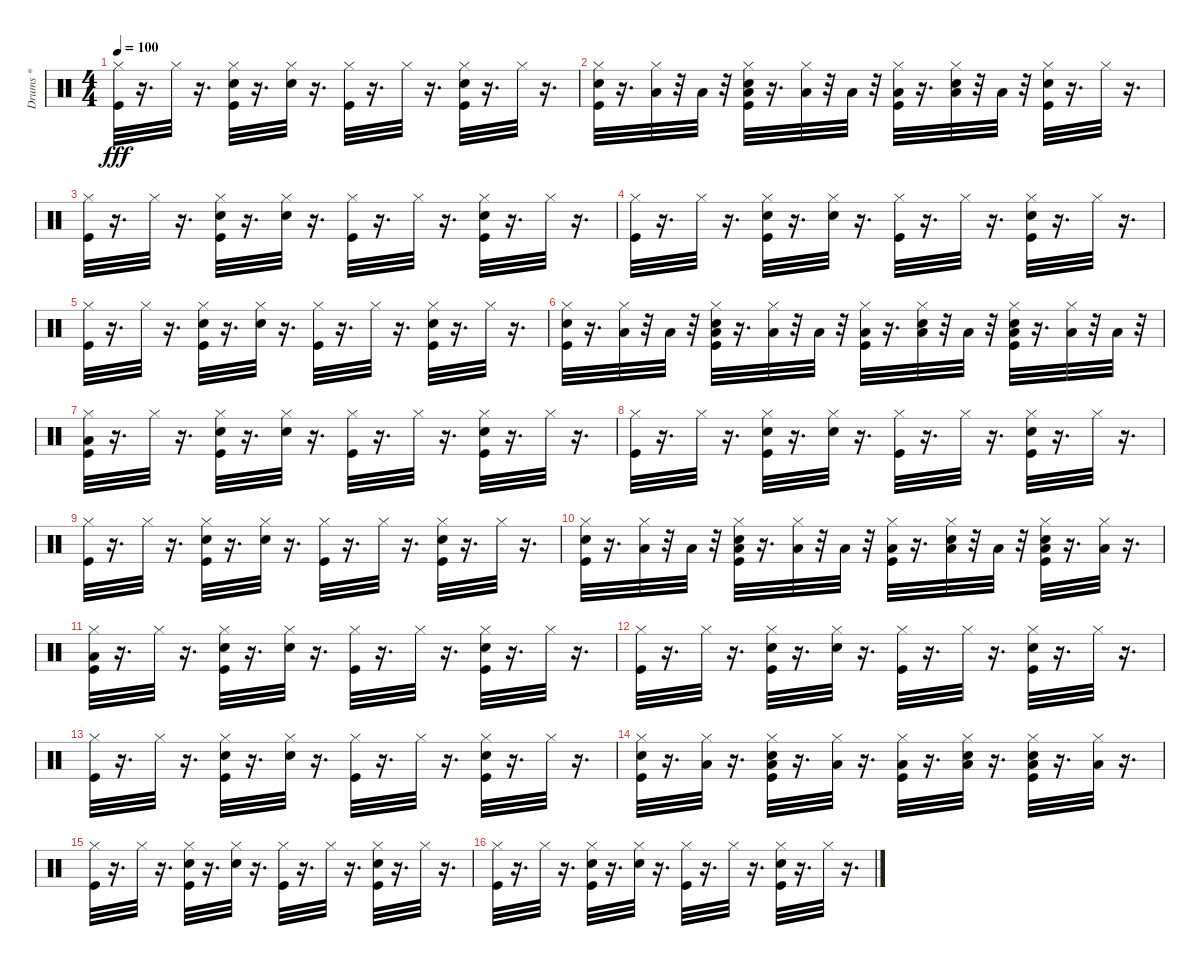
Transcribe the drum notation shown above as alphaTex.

\track ("Drums *" "Drums *") {instrument percussion}
\staff {score}
\articulation defaults
\ts (4 4)
\tempo 100
\clef neutral
\ks c
("Kick (hit)" "Hi-Hat (closed)").32{dy fff} r.16{d} "Hi-Hat (closed)".32 r.16{d} ("Kick (hit)" "Snare (hit) 2" "Hi-Hat (closed)").32 r.16{d} ("Snare (hit) 2" "Hi-Hat (closed)").32 r.16{d} ("Kick (hit)" "Hi-Hat (closed)").32 r.16{d} "Hi-Hat (closed)".32 r.16{d} ("Snare (hit) 2" "Kick (hit)" "Hi-Hat (closed)").32 r.16{d} "Hi-Hat (closed)".32 r.16{d} |
("Kick (hit)" "Hi-Hat (closed)" "Snare (hit) 2").32 r.16{d} ("Low Tom (hit)" "Hi-Hat (closed)").32 r.32 "Low Tom (hit)".32 r.32 ("Kick (hit)" "Low Tom (hit)" "Hi-Hat (closed)" "Snare (hit) 2").32 r.16{d} ("Hi-Hat (closed)" "Low Floor Tom (hit)").32 r.32 "Low Floor Tom (hit)".32 r.32 ("Kick (hit)" "Low Floor Tom (hit)" "Hi-Hat (closed)").32 r.16{d} ("Hi-Hat (closed)" "Snare (hit) 2" "Low Tom (hit)").32 r.32 "Low Tom (hit)".32 r.32 ("Kick (hit)" "Hi-Hat (closed)" "Snare (hit) 2").32 r.16{d} "Hi-Hat (closed)".32 r.16{d} |
("Hi-Hat (closed)" "Kick (hit)").32 r.16{d} "Hi-Hat (closed)".32 r.16{d} ("Kick (hit)" "Hi-Hat (closed)" "Snare (hit) 2").32 r.16{d} ("Snare (hit) 2" "Hi-Hat (closed)").32 r.16{d} ("Hi-Hat (closed)" "Kick (hit)").32 r.16{d} "Hi-Hat (closed)".32 r.16{d} ("Kick (hit)" "Snare (hit) 2" "Hi-Hat (closed)").32 r.16{d} "Hi-Hat (closed)".32 r.16{d} |
("Kick (hit)" "Hi-Hat (closed)").32 r.16{d} "Hi-Hat (closed)".32 r.16{d} ("Kick (hit)" "Hi-Hat (closed)" "Snare (hit) 2").32 r.16{d} ("Hi-Hat (closed)" "Snare (hit) 2").32 r.16{d} ("Kick (hit)" "Hi-Hat (closed)").32 r.16{d} "Hi-Hat (closed)".32 r.16{d} ("Hi-Hat (closed)" "Kick (hit)" "Snare (hit) 2").32 r.16{d} "Hi-Hat (closed)".32 r.16{d} |
("Hi-Hat (closed)" "Kick (hit)").32 r.16{d} "Hi-Hat (closed)".32 r.16{d} ("Snare (hit) 2" "Hi-Hat (closed)" "Kick (hit)").32 r.16{d} ("Hi-Hat (closed)" "Snare (hit) 2").32 r.16{d} ("Kick (hit)" "Hi-Hat (closed)").32 r.16{d} "Hi-Hat (closed)".32 r.16{d} ("Hi-Hat (closed)" "Snare (hit) 2" "Kick (hit)").32 r.16{d} "Hi-Hat (closed)".32 r.16{d} |
("Hi-Hat (closed)" "Kick (hit)" "Snare (hit) 2").32 r.16{d} ("Hi-Hat (closed)" "Low Tom (hit)").32 r.32 "Low Tom (hit)".32 r.32 ("Kick (hit)" "Low Tom (hit)" "Snare (hit) 2" "Hi-Hat (closed)").32 r.16{d} ("Hi-Hat (closed)" "Low Floor Tom (hit)").32 r.32 "Low Floor Tom (hit)".32 r.32 ("Hi-Hat (closed)" "Kick (hit)" "Low Floor Tom (hit)").32 r.16{d} ("Low Tom (hit)" "Hi-Hat (closed)" "Snare (hit) 2").32 r.32 "Low Tom (hit)".32 r.32 ("Kick (hit)" "Low Tom (hit)" "Hi-Hat (closed)" "Snare (hit) 2").32 r.16{d} ("Low Floor Tom (hit)" "Hi-Hat (closed)").32 r.32 "Low Floor Tom (hit)".32 r.32 |
("Hi-Hat (closed)" "Kick (hit)" "Low Floor Tom (hit)").32 r.16{d} "Hi-Hat (closed)".32 r.16{d} ("Snare (hit) 2" "Hi-Hat (closed)" "Kick (hit)").32 r.16{d} ("Hi-Hat (closed)" "Snare (hit) 2").32 r.16{d} ("Kick (hit)" "Hi-Hat (closed)").32 r.16{d} "Hi-Hat (closed)".32 r.16{d} ("Kick (hit)" "Hi-Hat (closed)" "Snare (hit) 2").32 r.16{d} "Hi-Hat (closed)".32 r.16{d} |
("Hi-Hat (closed)" "Kick (hit)").32 r.16{d} "Hi-Hat (closed)".32 r.16{d} ("Kick (hit)" "Snare (hit) 2" "Hi-Hat (closed)").32 r.16{d} ("Snare (hit) 2" "Hi-Hat (closed)").32 r.16{d} ("Kick (hit)" "Hi-Hat (closed)").32 r.16{d} "Hi-Hat (closed)".32 r.16{d} ("Hi-Hat (closed)" "Kick (hit)" "Snare (hit) 2").32 r.16{d} "Hi-Hat (closed)".32 r.16{d} |
("Kick (hit)" "Hi-Hat (closed)").32 r.16{d} "Hi-Hat (closed)".32 r.16{d} ("Kick (hit)" "Hi-Hat (closed)" "Snare (hit) 2").32 r.16{d} ("Snare (hit) 2" "Hi-Hat (closed)").32 r.16{d} ("Kick (hit)" "Hi-Hat (closed)").32 r.16{d} "Hi-Hat (closed)".32 r.16{d} ("Kick (hit)" "Hi-Hat (closed)" "Snare (hit) 2").32 r.16{d} "Hi-Hat (closed)".32 r.16{d} |
("Kick (hit)" "Hi-Hat (closed)" "Snare (hit) 2").32 r.16{d} ("Hi-Hat (closed)" "Low Tom (hit)").32 r.32 "Low Tom (hit)".32 r.32 ("Kick (hit)" "Low Tom (hit)" "Hi-Hat (closed)" "Snare (hit) 2").32 r.16{d} ("Hi-Hat (closed)" "Low Floor Tom (hit)").32 r.32 "Low Floor Tom (hit)".32 r.32 ("Low Floor Tom (hit)" "Kick (hit)" "Hi-Hat (closed)").32 r.16{d} ("Hi-Hat (closed)" "Low Tom (hit)" "Snare (hit) 2").32 r.32 "Low Tom (hit)".32 r.32 ("Snare (hit) 2" "Kick (hit)" "Hi-Hat (closed)" "Low Tom (hit)").32 r.16{d} ("Hi-Hat (closed)" "Low Floor Tom (hit)").32 r.16{d} |
("Low Floor Tom (hit)" "Hi-Hat (closed)" "Kick (hit)").32 r.16{d} "Hi-Hat (closed)".32 r.16{d} ("Snare (hit) 2" "Kick (hit)" "Hi-Hat (closed)").32 r.16{d} ("Hi-Hat (closed)" "Snare (hit) 2").32 r.16{d} ("Hi-Hat (closed)" "Kick (hit)").32 r.16{d} "Hi-Hat (closed)".32 r.16{d} ("Hi-Hat (closed)" "Snare (hit) 2" "Kick (hit)").32 r.16{d} "Hi-Hat (closed)".32 r.16{d} |
("Kick (hit)" "Hi-Hat (closed)").32 r.16{d} "Hi-Hat (closed)".32 r.16{d} ("Kick (hit)" "Hi-Hat (closed)" "Snare (hit) 2").32 r.16{d} ("Snare (hit) 2" "Hi-Hat (closed)").32 r.16{d} ("Kick (hit)" "Hi-Hat (closed)").32 r.16{d} "Hi-Hat (closed)".32 r.16{d} ("Kick (hit)" "Hi-Hat (closed)" "Snare (hit) 2").32 r.16{d} "Hi-Hat (closed)".32 r.16{d} |
("Kick (hit)" "Hi-Hat (closed)").32 r.16{d} "Hi-Hat (closed)".32 r.16{d} ("Snare (hit) 2" "Kick (hit)" "Hi-Hat (closed)").32 r.16{d} ("Snare (hit) 2" "Hi-Hat (closed)").32 r.16{d} ("Kick (hit)" "Hi-Hat (closed)").32 r.16{d} "Hi-Hat (closed)".32 r.16{d} ("Kick (hit)" "Hi-Hat (closed)" "Snare (hit) 2").32 r.16{d} "Hi-Hat (closed)".32 r.16{d} |
("Kick (hit)" "Hi-Hat (closed)" "Snare (hit) 2").32 r.16{d} ("Low Floor Tom (hit)" "Hi-Hat (closed)").32 r.16{d} ("Kick (hit)" "Snare (hit) 2" "Low Floor Tom (hit)" "Hi-Hat (closed)").32 r.16{d} ("Hi-Hat (closed)" "Low Floor Tom (hit)").32 r.16{d} ("Kick (hit)" "Hi-Hat (closed)" "Low Tom (hit)").32 r.16{d} ("Snare (hit) 2" "Hi-Hat (closed)" "Low Tom (hit)").32 r.16{d} ("Kick (hit)" "Snare (hit) 2" "Hi-Hat (closed)" "Low Floor Tom (hit)").32 r.16{d} ("Low Floor Tom (hit)" "Hi-Hat (closed)").32 r.16{d} |
("Kick (hit)" "Hi-Hat (closed)").32 r.16{d} "Hi-Hat (closed)".32 r.16{d} ("Kick (hit)" "Snare (hit) 2" "Hi-Hat (closed)").32 r.16{d} ("Hi-Hat (closed)" "Snare (hit) 2").32 r.16{d} ("Kick (hit)" "Hi-Hat (closed)").32 r.16{d} "Hi-Hat (closed)".32 r.16{d} ("Kick (hit)" "Hi-Hat (closed)" "Snare (hit) 2").32 r.16{d} "Hi-Hat (closed)".32 r.16{d} |
("Hi-Hat (closed)" "Kick (hit)").32 r.16{d} "Hi-Hat (closed)".32 r.16{d} ("Snare (hit) 2" "Kick (hit)" "Hi-Hat (closed)").32 r.16{d} ("Hi-Hat (closed)" "Snare (hit) 2").32 r.16{d} ("Kick (hit)" "Hi-Hat (closed)").32 r.16{d} "Hi-Hat (closed)".32 r.16{d} ("Hi-Hat (closed)" "Snare (hit) 2" "Kick (hit)").32 r.16{d} "Hi-Hat (closed)".32 r.16{d}
